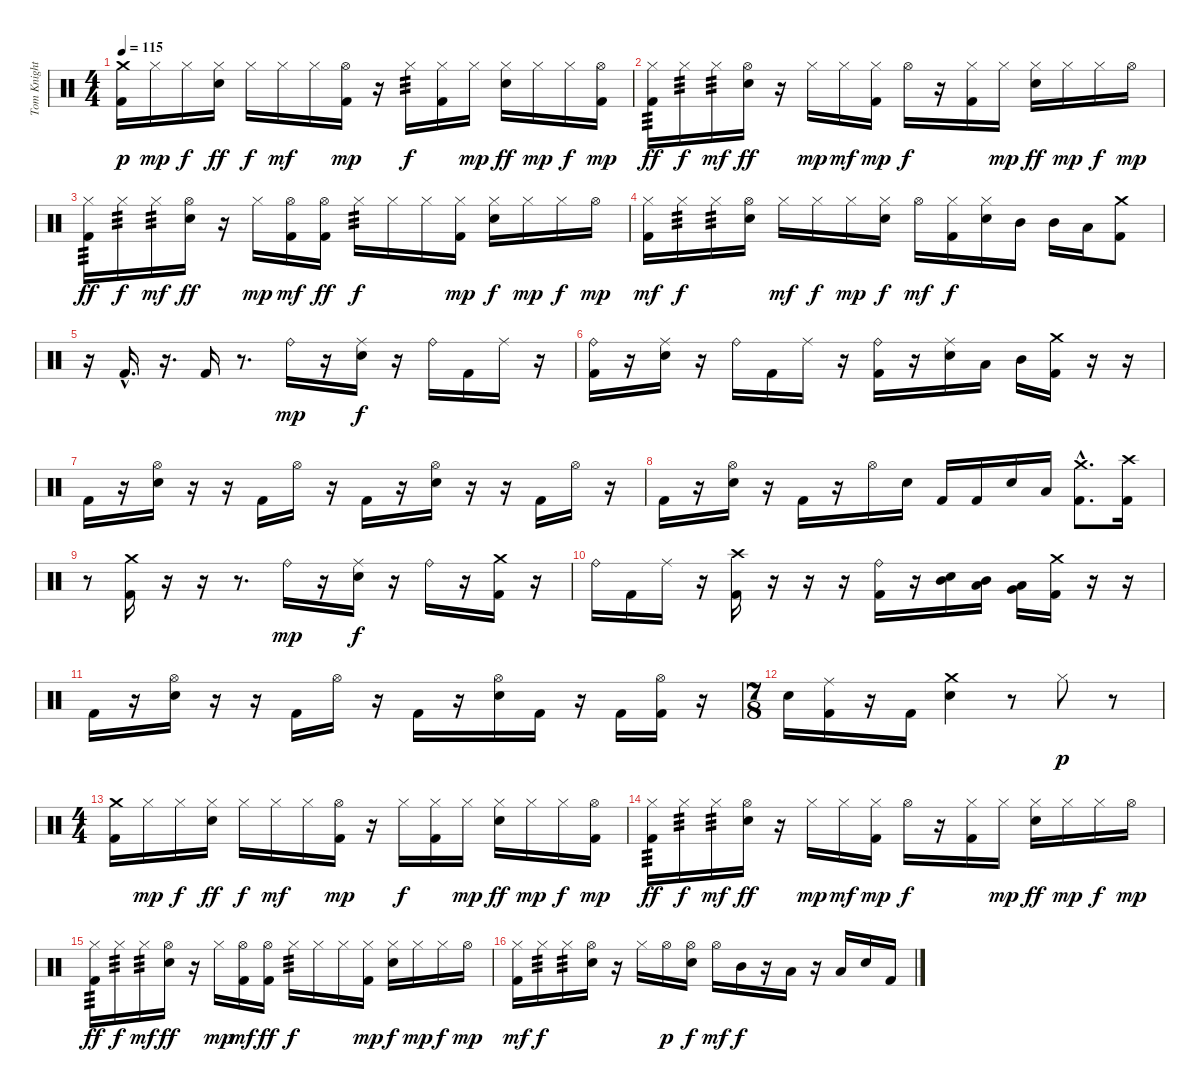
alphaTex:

\track ("Tom Knight" "Tom Knight") {instrument percussion}
\staff {score}
\articulation defaults
\ts (4 4)
\tempo 115
\clef neutral
\ks c
("Crash medium (hit)" "Kick (hit) 2").16{dy p} "Hi-Hat (closed)".16{dy mp} "Hi-Hat (closed)".16{dy f} ("Hi-Hat (closed)" "Electric Snare (hit)").16{dy ff} "Hi-Hat (closed)".16{dy f} "Hi-Hat (closed)".16{dy mf} "Hi-Hat (closed)".16 ("Hi-Hat (open)" "Kick (hit) 2").16{dy mp} r.16 "Hi-Hat (closed)".16{tp 3 dy f} ("Hi-Hat (closed)" "Kick (hit) 2").16 "Hi-Hat (closed)".16{dy mp} ("Hi-Hat (closed)" "Electric Snare (hit)").16{dy ff} "Hi-Hat (closed)".16{dy mp} "Hi-Hat (closed)".16{dy f} ("Hi-Hat (open)" "Kick (hit) 2").16{dy mp} |
("Hi-Hat (closed)" "Kick (hit) 2").16{tp 3 dy ff} "Hi-Hat (closed)".16{tp 3 dy f} "Hi-Hat (closed)".16{tp 3 dy mf} ("Hi-Hat (open)" "Electric Snare (hit)").16{dy ff} r.16 "Hi-Hat (closed)".16{dy mp} "Hi-Hat (closed)".16{dy mf} ("Hi-Hat (closed)" "Kick (hit) 2").16{dy mp} "Hi-Hat (open)".16{dy f} r.16 ("Hi-Hat (closed)" "Kick (hit) 2").16 "Hi-Hat (closed)".16{dy mp} ("Hi-Hat (closed)" "Electric Snare (hit)").16{dy ff} "Hi-Hat (closed)".16{dy mp} "Hi-Hat (closed)".16{dy f} "Hi-Hat (open)".16{dy mp} |
("Hi-Hat (closed)" "Kick (hit) 2").16{tp 3 dy ff} "Hi-Hat (closed)".16{tp 3 dy f} "Hi-Hat (closed)".16{tp 3 dy mf} ("Hi-Hat (open)" "Electric Snare (hit)").16{dy ff} r.16 "Hi-Hat (closed)".16{dy mp} ("Hi-Hat (open)" "Kick (hit) 2").16{dy mf} ("Hi-Hat (open)" "Kick (hit) 2").16{dy ff} "Hi-Hat (closed)".16{tp 3 dy f} "Hi-Hat (closed)".16 "Hi-Hat (closed)".16 ("Hi-Hat (closed)" "Kick (hit) 2").16{dy mp} ("Hi-Hat (closed)" "Electric Snare (hit)").16{dy f} "Hi-Hat (closed)".16{dy mp} "Hi-Hat (closed)".16{dy f} "Hi-Hat (open)".16{dy mp} |
("Hi-Hat (closed)" "Kick (hit) 2").16{dy mf} "Hi-Hat (closed)".16{tp 3 dy f} "Hi-Hat (closed)".16{tp 3} ("Hi-Hat (open)" "Electric Snare (hit)").16 "Hi-Hat (closed)".16{dy mf} "Hi-Hat (closed)".16{dy f} "Hi-Hat (closed)".16{dy mp} ("Hi-Hat (closed)" "Electric Snare (hit)").16{dy f} "Hi-Hat (open)".16{dy mf} ("Hi-Hat (closed)" "Kick (hit) 2").16{dy f} ("Hi-Hat (closed)" "Electric Snare (hit)").16 "Mid Tom (hit)".16 "Mid Tom (hit)".16 "Low Tom (hit)".16 ("Crash medium (hit)" "Kick (hit) 2").8 |
\section ("" "")
r.16 "Kick (hit) 2"{hac}.16{d} r.16{d} "Kick (hit) 2".16 r.8{d} "Ride (bell)".16{dy mp} r.16 ("Ride (middle)" "Electric Snare (hit)").16{dy f} r.16 "Ride (bell)".16 "Kick (hit) 2".16 "Ride (middle)".16 r.16 |
("Ride (bell)" "Kick (hit) 2").16 r.16 ("Ride (middle)" "Electric Snare (hit)").16 r.16 "Ride (bell)".16 "Kick (hit) 2".16 "Ride (middle)".16 r.16 ("Ride (bell)" "Kick (hit) 2").16 r.16 ("Ride (middle)" "Electric Snare (hit)").16 "Low Tom (hit)".16 "Mid Tom (hit)".16 ("Crash medium (hit)" "Kick (hit) 2").16 r.16 r.16 |
"Kick (hit) 2".16 r.16 ("Hi-Hat (open)" "Electric Snare (hit)").16 r.16 r.16 "Kick (hit) 2".16 "Hi-Hat (open)".16 r.16 "Kick (hit) 2".16 r.16 ("Hi-Hat (open)" "Electric Snare (hit)").16 r.16 r.16 "Kick (hit) 2".16 "Hi-Hat (open)".16 r.16 |
"Kick (hit) 2".16 r.16 ("Hi-Hat (open)" "Electric Snare (hit)").16 r.16 "Kick (hit) 2".16 r.16 "Hi-Hat (open)".16 "Electric Snare (hit)".16 "Kick (hit) 2".16 "Kick (hit) 2".16 "Electric Snare (hit)".16 "Low Tom (hit)".16 ("Crash medium (hit)"{hac} "Kick (hit) 2"{hac}).8{d} ("Crash high (hit)" "Kick (hit) 2").16 |
r.8 ("Crash medium (hit)" "Kick (hit) 2").16 r.16 r.16 r.8{d} "Ride (bell)".16{dy mp} r.16 ("Ride (middle)" "Electric Snare (hit)").16{dy f} r.16 "Ride (bell)".16 r.16 ("Crash medium (hit)" "Kick (hit) 2").16 r.16 |
"Ride (bell)".16 "Kick (hit) 2".16 "Ride (middle)".16 r.16 ("Crash high (hit)" "Kick (hit) 2").16 r.16 r.16 r.16 ("Ride (bell)" "Kick (hit) 2").16 r.16 ("Mid Tom (hit)" "Electric Snare (hit)").16{bd 480} ("Mid Tom (hit)" "Low Tom (hit)").16{bd 480} ("Low Tom (hit)" "Very Low Tom (hit)").16{bd 480} ("Crash medium (hit)" "Kick (hit) 2").16 r.16 r.16 |
"Kick (hit) 2".16 r.16 ("Hi-Hat (open)" "Electric Snare (hit)").16 r.16 r.16 "Kick (hit) 2".16 "Hi-Hat (open)".16 r.16 "Kick (hit) 2".16 r.16 ("Hi-Hat (open)" "Electric Snare (hit)").16 "Kick (hit) 2".16 r.16 "Kick (hit) 2".16 ("Hi-Hat (open)" "Kick (hit) 2").16 r.16 |
\ts (7 8)
"Electric Snare (hit)".16 ("Ride (middle)" "Kick (hit) 2").16 r.16 "Kick (hit) 2".16 ("Crash medium (hit)" "Electric Snare (hit)").4 r.8 "Hi-Hat (closed)".8{dy p} r.8 |
\ts (4 4)
\section ("" "")
("Crash medium (hit)" "Kick (hit) 2").16 "Hi-Hat (closed)".16{dy mp} "Hi-Hat (closed)".16{dy f} ("Hi-Hat (closed)" "Electric Snare (hit)").16{dy ff} "Hi-Hat (closed)".16{dy f} "Hi-Hat (closed)".16{dy mf} "Hi-Hat (closed)".16 ("Hi-Hat (open)" "Kick (hit) 2").16{dy mp} r.16 "Hi-Hat (closed)".16{dy f} ("Hi-Hat (closed)" "Kick (hit) 2").16 "Hi-Hat (closed)".16{dy mp} ("Hi-Hat (closed)" "Electric Snare (hit)").16{dy ff} "Hi-Hat (closed)".16{dy mp} "Hi-Hat (closed)".16{dy f} ("Hi-Hat (open)" "Kick (hit) 2").16{dy mp} |
("Hi-Hat (closed)" "Kick (hit) 2").16{tp 3 dy ff} "Hi-Hat (closed)".16{tp 3 dy f} "Hi-Hat (closed)".16{tp 3 dy mf} ("Hi-Hat (open)" "Electric Snare (hit)").16{dy ff} r.16 "Hi-Hat (closed)".16{dy mp} "Hi-Hat (closed)".16{dy mf} ("Hi-Hat (closed)" "Kick (hit) 2").16{dy mp} "Hi-Hat (open)".16{dy f} r.16 ("Hi-Hat (closed)" "Kick (hit) 2").16 "Hi-Hat (closed)".16{dy mp} ("Hi-Hat (closed)" "Electric Snare (hit)").16{dy ff} "Hi-Hat (closed)".16{dy mp} "Hi-Hat (closed)".16{dy f} "Hi-Hat (open)".16{dy mp} |
("Hi-Hat (closed)" "Kick (hit) 2").16{tp 3 dy ff} "Hi-Hat (closed)".16{tp 3 dy f} "Hi-Hat (closed)".16{tp 3 dy mf} ("Hi-Hat (open)" "Electric Snare (hit)").16{dy ff} r.16 "Hi-Hat (closed)".16{dy mp} ("Hi-Hat (open)" "Kick (hit) 2").16{dy mf} ("Hi-Hat (open)" "Kick (hit) 2").16{dy ff} "Hi-Hat (closed)".16{tp 3 dy f} "Hi-Hat (closed)".16 "Hi-Hat (closed)".16 ("Hi-Hat (closed)" "Kick (hit) 2").16{dy mp} ("Hi-Hat (closed)" "Electric Snare (hit)").16{dy f} "Hi-Hat (closed)".16{dy mp} "Hi-Hat (closed)".16{dy f} "Hi-Hat (open)".16{dy mp} |
("Hi-Hat (closed)" "Kick (hit) 2").16{dy mf} "Hi-Hat (closed)".16{tp 3 dy f} "Hi-Hat (closed)".16{tp 3} ("Hi-Hat (open)" "Electric Snare (hit)").16 r.16 "Hi-Hat (closed)".16 "Hi-Hat (open)".16{dy p} ("Hi-Hat (open)" "Electric Snare (hit)").16{dy f} "Hi-Hat (open)".16{dy mf} "Mid Tom (hit)".16{dy f} r.16 "Low Tom (hit)".16 r.16 "Low Tom (hit)".16 "Electric Snare (hit)".16 "Kick (hit) 2".16
